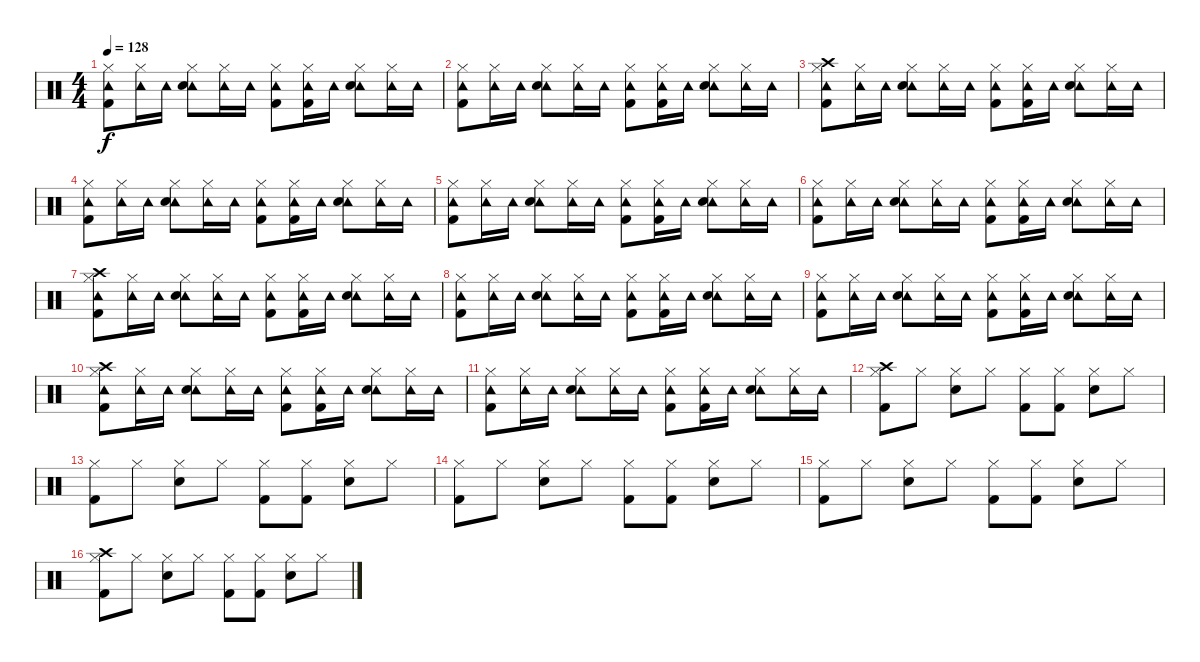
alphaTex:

\track "" {instrument percussion}
\staff {score}
\articulation defaults
\ts (4 4)
\tempo 128
\clef neutral
\ks c
("Hi-Hat (closed)" "Tambourine (hit)" "Kick (hit) 2").8{dy f} ("Hi-Hat (closed)" "Tambourine (hit)").16 "Tambourine (hit)".16 ("Hi-Hat (closed)" "Tambourine (hit)" "Snare (hit) 2").8 ("Hi-Hat (closed)" "Tambourine (hit)").16 "Tambourine (hit)".16 ("Hi-Hat (closed)" "Tambourine (hit)" "Kick (hit) 2").8 ("Hi-Hat (closed)" "Tambourine (hit)" "Kick (hit) 2").16 "Tambourine (hit)".16 ("Hi-Hat (closed)" "Tambourine (hit)" "Snare (hit) 2").8 ("Hi-Hat (closed)" "Tambourine (hit)").16 "Tambourine (hit)".16 |
("Hi-Hat (closed)" "Tambourine (hit)" "Kick (hit) 2").8 ("Hi-Hat (closed)" "Tambourine (hit)").16 "Tambourine (hit)".16 ("Hi-Hat (closed)" "Tambourine (hit)" "Snare (hit) 2").8 ("Hi-Hat (closed)" "Tambourine (hit)").16 "Tambourine (hit)".16 ("Hi-Hat (closed)" "Tambourine (hit)" "Kick (hit) 2").8 ("Hi-Hat (closed)" "Tambourine (hit)" "Kick (hit) 2").16 "Tambourine (hit)".16 ("Hi-Hat (closed)" "Tambourine (hit)" "Snare (hit) 2").8 ("Hi-Hat (closed)" "Tambourine (hit)").16 "Tambourine (hit)".16 |
("Hi-Hat (closed)" "Tambourine (hit)" "Crash high (hit)" "Kick (hit) 2").8 ("Hi-Hat (closed)" "Tambourine (hit)").16 "Tambourine (hit)".16 ("Hi-Hat (closed)" "Tambourine (hit)" "Snare (hit) 2").8 ("Hi-Hat (closed)" "Tambourine (hit)").16 "Tambourine (hit)".16 ("Hi-Hat (closed)" "Tambourine (hit)" "Kick (hit) 2").8 ("Hi-Hat (closed)" "Tambourine (hit)" "Kick (hit) 2").16 "Tambourine (hit)".16 ("Hi-Hat (closed)" "Tambourine (hit)" "Snare (hit) 2").8 ("Hi-Hat (closed)" "Tambourine (hit)").16 "Tambourine (hit)".16 |
("Hi-Hat (closed)" "Tambourine (hit)" "Kick (hit) 2").8 ("Hi-Hat (closed)" "Tambourine (hit)").16 "Tambourine (hit)".16 ("Hi-Hat (closed)" "Tambourine (hit)" "Snare (hit) 2").8 ("Hi-Hat (closed)" "Tambourine (hit)").16 "Tambourine (hit)".16 ("Hi-Hat (closed)" "Tambourine (hit)" "Kick (hit) 2").8 ("Hi-Hat (closed)" "Tambourine (hit)" "Kick (hit) 2").16 "Tambourine (hit)".16 ("Hi-Hat (closed)" "Tambourine (hit)" "Snare (hit) 2").8 ("Hi-Hat (closed)" "Tambourine (hit)").16 "Tambourine (hit)".16 |
("Hi-Hat (closed)" "Tambourine (hit)" "Kick (hit) 2").8 ("Hi-Hat (closed)" "Tambourine (hit)").16 "Tambourine (hit)".16 ("Hi-Hat (closed)" "Tambourine (hit)" "Snare (hit) 2").8 ("Hi-Hat (closed)" "Tambourine (hit)").16 "Tambourine (hit)".16 ("Hi-Hat (closed)" "Tambourine (hit)" "Kick (hit) 2").8 ("Hi-Hat (closed)" "Tambourine (hit)" "Kick (hit) 2").16 "Tambourine (hit)".16 ("Hi-Hat (closed)" "Tambourine (hit)" "Snare (hit) 2").8 ("Hi-Hat (closed)" "Tambourine (hit)").16 "Tambourine (hit)".16 |
("Hi-Hat (closed)" "Tambourine (hit)" "Kick (hit) 2").8 ("Hi-Hat (closed)" "Tambourine (hit)").16 "Tambourine (hit)".16 ("Hi-Hat (closed)" "Tambourine (hit)" "Snare (hit) 2").8 ("Hi-Hat (closed)" "Tambourine (hit)").16 "Tambourine (hit)".16 ("Hi-Hat (closed)" "Tambourine (hit)" "Kick (hit) 2").8 ("Hi-Hat (closed)" "Tambourine (hit)" "Kick (hit) 2").16 "Tambourine (hit)".16 ("Hi-Hat (closed)" "Tambourine (hit)" "Snare (hit) 2").8 ("Hi-Hat (closed)" "Tambourine (hit)").16 "Tambourine (hit)".16 |
("Hi-Hat (closed)" "Tambourine (hit)" "Crash high (hit)" "Kick (hit) 2").8 ("Hi-Hat (closed)" "Tambourine (hit)").16 "Tambourine (hit)".16 ("Hi-Hat (closed)" "Tambourine (hit)" "Snare (hit) 2").8 ("Hi-Hat (closed)" "Tambourine (hit)").16 "Tambourine (hit)".16 ("Hi-Hat (closed)" "Tambourine (hit)" "Kick (hit) 2").8 ("Hi-Hat (closed)" "Tambourine (hit)" "Kick (hit) 2").16 "Tambourine (hit)".16 ("Hi-Hat (closed)" "Tambourine (hit)" "Snare (hit) 2").8 ("Hi-Hat (closed)" "Tambourine (hit)").16 "Tambourine (hit)".16 |
("Hi-Hat (closed)" "Tambourine (hit)" "Kick (hit) 2").8 ("Hi-Hat (closed)" "Tambourine (hit)").16 "Tambourine (hit)".16 ("Hi-Hat (closed)" "Tambourine (hit)" "Snare (hit) 2").8 ("Hi-Hat (closed)" "Tambourine (hit)").16 "Tambourine (hit)".16 ("Hi-Hat (closed)" "Tambourine (hit)" "Kick (hit) 2").8 ("Hi-Hat (closed)" "Tambourine (hit)" "Kick (hit) 2").16 "Tambourine (hit)".16 ("Hi-Hat (closed)" "Tambourine (hit)" "Snare (hit) 2").8 ("Hi-Hat (closed)" "Tambourine (hit)").16 "Tambourine (hit)".16 |
("Hi-Hat (closed)" "Tambourine (hit)" "Kick (hit) 2").8 ("Hi-Hat (closed)" "Tambourine (hit)").16 "Tambourine (hit)".16 ("Hi-Hat (closed)" "Tambourine (hit)" "Snare (hit) 2").8 ("Hi-Hat (closed)" "Tambourine (hit)").16 "Tambourine (hit)".16 ("Hi-Hat (closed)" "Tambourine (hit)" "Kick (hit) 2").8 ("Hi-Hat (closed)" "Tambourine (hit)" "Kick (hit) 2").16 "Tambourine (hit)".16 ("Hi-Hat (closed)" "Tambourine (hit)" "Snare (hit) 2").8 ("Hi-Hat (closed)" "Tambourine (hit)").16 "Tambourine (hit)".16 |
("Hi-Hat (closed)" "Tambourine (hit)" "Crash high (hit)" "Kick (hit) 2").8 ("Hi-Hat (closed)" "Tambourine (hit)").16 "Tambourine (hit)".16 ("Hi-Hat (closed)" "Tambourine (hit)" "Snare (hit) 2").8 ("Hi-Hat (closed)" "Tambourine (hit)").16 "Tambourine (hit)".16 ("Hi-Hat (closed)" "Tambourine (hit)" "Kick (hit) 2").8 ("Hi-Hat (closed)" "Tambourine (hit)" "Kick (hit) 2").16 "Tambourine (hit)".16 ("Hi-Hat (closed)" "Tambourine (hit)" "Snare (hit) 2").8 ("Hi-Hat (closed)" "Tambourine (hit)").16 "Tambourine (hit)".16 |
("Hi-Hat (closed)" "Tambourine (hit)" "Kick (hit) 2").8 ("Hi-Hat (closed)" "Tambourine (hit)").16 "Tambourine (hit)".16 ("Hi-Hat (closed)" "Tambourine (hit)" "Snare (hit) 2").8 ("Hi-Hat (closed)" "Tambourine (hit)").16 "Tambourine (hit)".16 ("Hi-Hat (closed)" "Tambourine (hit)" "Kick (hit) 2").8 ("Hi-Hat (closed)" "Tambourine (hit)" "Kick (hit) 2").16 "Tambourine (hit)".16 ("Hi-Hat (closed)" "Tambourine (hit)" "Snare (hit) 2").8 ("Hi-Hat (closed)" "Tambourine (hit)").16 "Tambourine (hit)".16 |
("Hi-Hat (closed)" "Crash high (hit)" "Kick (hit) 2").8 "Hi-Hat (closed)".8 ("Hi-Hat (closed)" "Snare (hit) 2").8 "Hi-Hat (closed)".8 ("Hi-Hat (closed)" "Kick (hit) 2").8 ("Hi-Hat (closed)" "Kick (hit) 2").8 ("Hi-Hat (closed)" "Snare (hit) 2").8 "Hi-Hat (closed)".8 |
("Hi-Hat (closed)" "Kick (hit) 2").8 "Hi-Hat (closed)".8 ("Hi-Hat (closed)" "Snare (hit) 2").8 "Hi-Hat (closed)".8 ("Hi-Hat (closed)" "Kick (hit) 2").8 ("Hi-Hat (closed)" "Kick (hit) 2").8 ("Hi-Hat (closed)" "Snare (hit) 2").8 "Hi-Hat (closed)".8 |
("Hi-Hat (closed)" "Kick (hit) 2").8 "Hi-Hat (closed)".8 ("Hi-Hat (closed)" "Snare (hit) 2").8 "Hi-Hat (closed)".8 ("Hi-Hat (closed)" "Kick (hit) 2").8 ("Hi-Hat (closed)" "Kick (hit) 2").8 ("Hi-Hat (closed)" "Snare (hit) 2").8 "Hi-Hat (closed)".8 |
("Hi-Hat (closed)" "Kick (hit) 2").8 "Hi-Hat (closed)".8 ("Hi-Hat (closed)" "Snare (hit) 2").8 "Hi-Hat (closed)".8 ("Hi-Hat (closed)" "Kick (hit) 2").8 ("Hi-Hat (closed)" "Kick (hit) 2").8 ("Hi-Hat (closed)" "Snare (hit) 2").8 "Hi-Hat (closed)".8 |
("Hi-Hat (closed)" "Crash high (hit)" "Kick (hit) 2").8 "Hi-Hat (closed)".8 ("Hi-Hat (closed)" "Snare (hit) 2").8 "Hi-Hat (closed)".8 ("Hi-Hat (closed)" "Kick (hit) 2").8 ("Hi-Hat (closed)" "Kick (hit) 2").8 ("Hi-Hat (closed)" "Snare (hit) 2").8 "Hi-Hat (closed)".8
